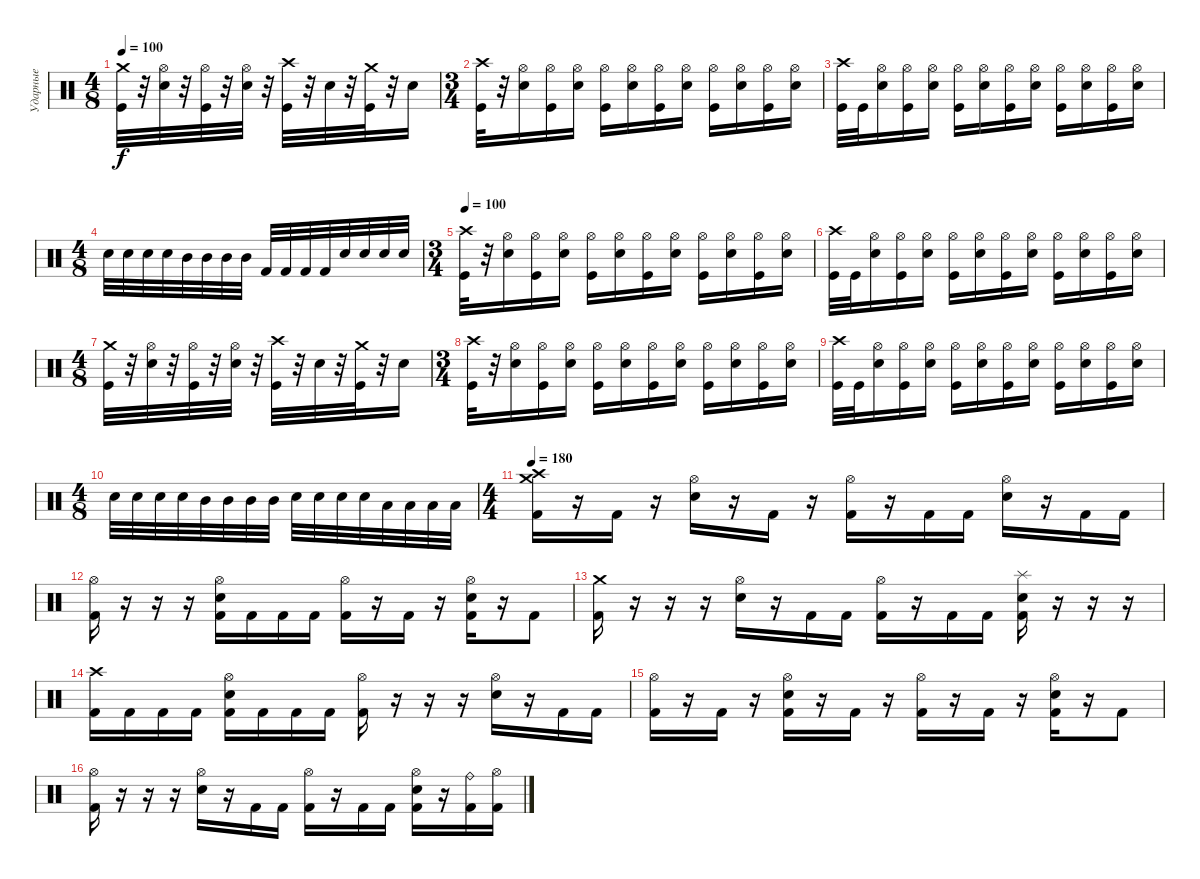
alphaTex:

\track ("Ударные" "Ударные") {instrument percussion}
\staff {score}
\articulation defaults
\ts (4 8)
\tempo 100
\clef neutral
\ks c
("Crash medium (hit)" "Kick (hit)").32{dy f} r.32 ("Hi-Hat (open)" "Electric Snare (hit)").32 r.32 ("Hi-Hat (open)" "Kick (hit)").32 r.32 ("Hi-Hat (open)" "Electric Snare (hit)").32 r.32 ("Crash high (hit)" "Kick (hit)").32 r.32 "Electric Snare (hit)".32 r.32 ("Crash medium (hit)" "Kick (hit)").32 r.32 "Electric Snare (hit)".16 |
\ts (3 4)
("Crash high (hit)" "Kick (hit)").32 r.32 ("Hi-Hat (open)" "Electric Snare (hit)").16 ("Hi-Hat (open)" "Kick (hit)").16 ("Hi-Hat (open)" "Electric Snare (hit)").16 ("Hi-Hat (open)" "Kick (hit)").16 ("Hi-Hat (open)" "Electric Snare (hit)").16 ("Hi-Hat (open)" "Kick (hit)").16 ("Hi-Hat (open)" "Electric Snare (hit)").16 ("Hi-Hat (open)" "Kick (hit)").16 ("Hi-Hat (open)" "Electric Snare (hit)").16 ("Hi-Hat (open)" "Kick (hit)").16 ("Hi-Hat (open)" "Electric Snare (hit)").16 |
("Crash high (hit)" "Kick (hit)").32 "Kick (hit)".32 ("Hi-Hat (open)" "Electric Snare (hit)").16 ("Hi-Hat (open)" "Kick (hit)").16 ("Hi-Hat (open)" "Electric Snare (hit)").16 ("Hi-Hat (open)" "Kick (hit)").16 ("Hi-Hat (open)" "Electric Snare (hit)").16 ("Hi-Hat (open)" "Kick (hit)").16 ("Hi-Hat (open)" "Electric Snare (hit)").16 ("Hi-Hat (open)" "Kick (hit)").16 ("Hi-Hat (open)" "Electric Snare (hit)").16 ("Hi-Hat (open)" "Kick (hit)").16 ("Hi-Hat (open)" "Electric Snare (hit)").16 |
\ts (4 8)
"Electric Snare (hit)".32 "Electric Snare (hit)".32 "Electric Snare (hit)".32 "Electric Snare (hit)".32 "Mid Tom (hit)".32 "Mid Tom (hit)".32 "Mid Tom (hit)".32 "Mid Tom (hit)".32 "Kick (hit) 2".32 "Kick (hit) 2".32 "Kick (hit) 2".32 "Kick (hit) 2".32 "Electric Snare (hit)".32 "Electric Snare (hit)".32 "Electric Snare (hit)".32 "Electric Snare (hit)".32 |
\ts (3 4)
\tempo 100
("Crash high (hit)" "Kick (hit)").32 r.32 ("Hi-Hat (open)" "Electric Snare (hit)").16 ("Hi-Hat (open)" "Kick (hit)").16 ("Hi-Hat (open)" "Electric Snare (hit)").16 ("Hi-Hat (open)" "Kick (hit)").16 ("Hi-Hat (open)" "Electric Snare (hit)").16 ("Hi-Hat (open)" "Kick (hit)").16 ("Hi-Hat (open)" "Electric Snare (hit)").16 ("Hi-Hat (open)" "Kick (hit)").16 ("Hi-Hat (open)" "Electric Snare (hit)").16 ("Hi-Hat (open)" "Kick (hit)").16 ("Hi-Hat (open)" "Electric Snare (hit)").16 |
("Crash high (hit)" "Kick (hit)").32 "Kick (hit)".32 ("Hi-Hat (open)" "Electric Snare (hit)").16 ("Hi-Hat (open)" "Kick (hit)").16 ("Hi-Hat (open)" "Electric Snare (hit)").16 ("Hi-Hat (open)" "Kick (hit)").16 ("Hi-Hat (open)" "Electric Snare (hit)").16 ("Hi-Hat (open)" "Kick (hit)").16 ("Hi-Hat (open)" "Electric Snare (hit)").16 ("Hi-Hat (open)" "Kick (hit)").16 ("Hi-Hat (open)" "Electric Snare (hit)").16 ("Hi-Hat (open)" "Kick (hit)").16 ("Hi-Hat (open)" "Electric Snare (hit)").16 |
\ts (4 8)
("Crash medium (hit)" "Kick (hit)").32 r.32 ("Hi-Hat (open)" "Electric Snare (hit)").32 r.32 ("Hi-Hat (open)" "Kick (hit)").32 r.32 ("Hi-Hat (open)" "Electric Snare (hit)").32 r.32 ("Crash high (hit)" "Kick (hit)").32 r.32 "Electric Snare (hit)".32 r.32 ("Crash medium (hit)" "Kick (hit)").32 r.32 "Electric Snare (hit)".16 |
\ts (3 4)
("Crash high (hit)" "Kick (hit)").32 r.32 ("Hi-Hat (open)" "Electric Snare (hit)").16 ("Hi-Hat (open)" "Kick (hit)").16 ("Hi-Hat (open)" "Electric Snare (hit)").16 ("Hi-Hat (open)" "Kick (hit)").16 ("Hi-Hat (open)" "Electric Snare (hit)").16 ("Hi-Hat (open)" "Kick (hit)").16 ("Hi-Hat (open)" "Electric Snare (hit)").16 ("Hi-Hat (open)" "Kick (hit)").16 ("Hi-Hat (open)" "Electric Snare (hit)").16 ("Hi-Hat (open)" "Kick (hit)").16 ("Hi-Hat (open)" "Electric Snare (hit)").16 |
("Crash high (hit)" "Kick (hit)").32 "Kick (hit)".32 ("Hi-Hat (open)" "Electric Snare (hit)").16 ("Hi-Hat (open)" "Kick (hit)").16 ("Hi-Hat (open)" "Electric Snare (hit)").16 ("Hi-Hat (open)" "Kick (hit)").16 ("Hi-Hat (open)" "Electric Snare (hit)").16 ("Hi-Hat (open)" "Kick (hit)").16 ("Hi-Hat (open)" "Electric Snare (hit)").16 ("Hi-Hat (open)" "Kick (hit)").16 ("Hi-Hat (open)" "Electric Snare (hit)").16 ("Hi-Hat (open)" "Kick (hit)").16 ("Hi-Hat (open)" "Electric Snare (hit)").16 |
\ts (4 8)
"Electric Snare (hit)".32 "Electric Snare (hit)".32 "Electric Snare (hit)".32 "Electric Snare (hit)".32 "Mid Tom (hit)".32 "Mid Tom (hit)".32 "Mid Tom (hit)".32 "Mid Tom (hit)".32 "Electric Snare (hit)".32 "Electric Snare (hit)".32 "Electric Snare (hit)".32 "Electric Snare (hit)".32 "Low Tom (hit)".32 "Low Tom (hit)".32 "Low Tom (hit)".32 "Low Tom (hit)".32 |
\ts (4 4)
\tempo 180
("Crash medium (hit)" "Crash high (hit)" "Kick (hit) 2").16 r.16 "Kick (hit) 2".16 r.16 ("Hi-Hat (open)" "Electric Snare (hit)").16 r.16 "Kick (hit) 2".16 r.16 ("Hi-Hat (open)" "Kick (hit) 2").16 r.16 "Kick (hit) 2".16 "Kick (hit) 2".16 ("Hi-Hat (open)" "Electric Snare (hit)").16 r.16 "Kick (hit) 2".16 "Kick (hit) 2".16 |
("Hi-Hat (open)" "Kick (hit) 2").16 r.16 r.16 r.16 ("Hi-Hat (open)" "Electric Snare (hit)" "Kick (hit) 2").16 "Kick (hit) 2".16 "Kick (hit) 2".16 "Kick (hit) 2".16 ("Hi-Hat (open)" "Kick (hit) 2").16 r.16 "Kick (hit) 2".16 r.16 ("Hi-Hat (open)" "Electric Snare (hit)" "Kick (hit) 2").16 r.16 "Kick (hit) 2".8 |
("Crash medium (hit)" "Kick (hit) 2").16 r.16 r.16 r.16 ("Hi-Hat (open)" "Electric Snare (hit)").16 r.16 "Kick (hit) 2".16 "Kick (hit) 2".16 ("Hi-Hat (open)" "Kick (hit) 2").16 r.16 "Kick (hit) 2".16 "Kick (hit) 2".16 ("Splash (hit)" "Electric Snare (hit)" "Kick (hit) 2").16 r.16 r.16 r.16 |
("Crash high (hit)" "Kick (hit) 2").16 "Kick (hit) 2".16 "Kick (hit) 2".16 "Kick (hit) 2".16 ("Hi-Hat (open)" "Electric Snare (hit)" "Kick (hit) 2").16 "Kick (hit) 2".16 "Kick (hit) 2".16 "Kick (hit) 2".16 ("Hi-Hat (open)" "Kick (hit) 2").16 r.16 r.16 r.16 ("Hi-Hat (open)" "Electric Snare (hit)").16 r.16 "Kick (hit) 2".16 "Kick (hit) 2".16 |
("Hi-Hat (open)" "Kick (hit) 2").16 r.16 "Kick (hit) 2".16 r.16 ("Hi-Hat (open)" "Electric Snare (hit)" "Kick (hit) 2").16 r.16 "Kick (hit) 2".16 r.16 ("Hi-Hat (open)" "Kick (hit) 2").16 r.16 "Kick (hit) 2".16 r.16 ("Hi-Hat (open)" "Electric Snare (hit)" "Kick (hit) 2").16 r.16 "Kick (hit) 2".8 |
("Hi-Hat (open)" "Kick (hit) 2").16 r.16 r.16 r.16 ("Hi-Hat (open)" "Electric Snare (hit)").16 r.16 "Kick (hit) 2".16 "Kick (hit) 2".16 ("Hi-Hat (open)" "Kick (hit) 2").16 r.16 "Kick (hit) 2".16 "Kick (hit) 2".16 ("Hi-Hat (open)" "Electric Snare (hit)" "Kick (hit) 2").16 r.16 ("Ride (bell)" "Kick (hit) 2").16 ("Hi-Hat (open)" "Kick (hit) 2").16
